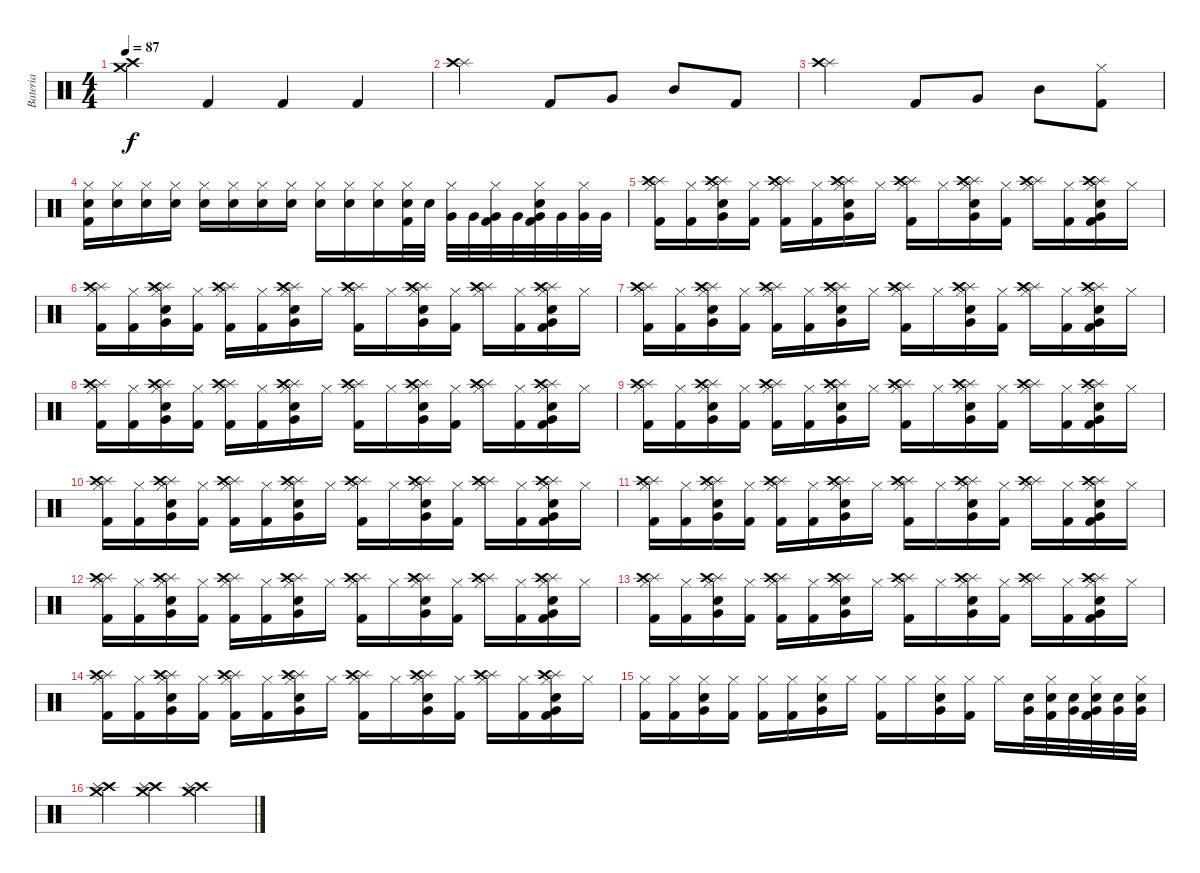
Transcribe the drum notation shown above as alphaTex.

\track ("Bateria" "Bateria") {instrument percussion}
\staff {score}
\articulation defaults
\ts (4 4)
\tempo 87
\clef neutral
\ks c
("Crash medium (hit)" "Crash high (hit)").4{dy f} "Kick (hit) 2".4 "Kick (hit) 2".4 "Kick (hit) 2".4 |
("Splash (hit)" "Crash high (hit)").2 "Kick (hit) 2".8 "Very Low Tom (hit)".8 "Mid Tom (hit)".8 "Kick (hit) 2".8 |
("Splash (hit)" "Crash high (hit)").2 "Kick (hit) 2".8 "Very Low Tom (hit)".8 "Mid Tom (hit)".8 ("Kick (hit) 2" "Hi-Hat (closed)").8 |
("Hi-Hat (closed)" "Snare (hit) 2" "Kick (hit) 2").16 ("Hi-Hat (closed)" "Snare (hit) 2").16 ("Hi-Hat (closed)" "Snare (hit) 2").16 ("Hi-Hat (closed)" "Snare (hit) 2").16 ("Hi-Hat (closed)" "Snare (hit) 2").16 ("Hi-Hat (closed)" "Snare (hit) 2").16 ("Hi-Hat (closed)" "Snare (hit) 2").16 ("Hi-Hat (closed)" "Snare (hit) 2").16 ("Hi-Hat (closed)" "Snare (hit) 2").16 ("Hi-Hat (closed)" "Snare (hit) 2").16 ("Hi-Hat (closed)" "Snare (hit) 2").16 ("Hi-Hat (closed)" "Kick (hit) 2" "Snare (hit) 2").32 "Snare (hit) 2".32 ("Hi-Hat (closed)" "Very Low Tom (hit)").32 "Very Low Tom (hit)".32 ("Hi-Hat (closed)" "Kick (hit) 2" "Very Low Tom (hit)").32 "Very Low Tom (hit)".32 ("Hi-Hat (closed)" "Kick (hit) 2" "Snare (hit) 2" "Very Low Tom (hit)").32 "Very Low Tom (hit)".32 ("Hi-Hat (closed)" "Very Low Tom (hit)").32 "Very Low Tom (hit)".32 |
("Hi-Hat (closed)" "Kick (hit) 2" "Splash (hit)" "Crash high (hit)").16 ("Hi-Hat (closed)" "Kick (hit) 2").16 ("Hi-Hat (closed)" "Snare (hit) 2" "Very Low Tom (hit)" "Splash (hit)" "Crash high (hit)").16 ("Hi-Hat (closed)" "Kick (hit) 2").16 ("Hi-Hat (closed)" "Kick (hit) 2" "Splash (hit)" "Crash high (hit)").16 ("Hi-Hat (closed)" "Kick (hit) 2").16 ("Hi-Hat (closed)" "Snare (hit) 2" "Very Low Tom (hit)" "Splash (hit)" "Crash high (hit)").16 "Hi-Hat (closed)".16 ("Hi-Hat (closed)" "Kick (hit) 2" "Splash (hit)" "Crash high (hit)").16 "Hi-Hat (closed)".16 ("Hi-Hat (closed)" "Snare (hit) 2" "Very Low Tom (hit)" "Splash (hit)" "Crash high (hit)").16 ("Hi-Hat (closed)" "Kick (hit) 2").16 ("Hi-Hat (closed)" "Splash (hit)" "Crash high (hit)").16 ("Hi-Hat (closed)" "Kick (hit) 2").16 ("Hi-Hat (closed)" "Kick (hit) 2" "Snare (hit) 2" "Very Low Tom (hit)" "Splash (hit)" "Crash high (hit)").16 "Hi-Hat (closed)".16 |
("Hi-Hat (closed)" "Kick (hit) 2" "Splash (hit)" "Crash high (hit)").16 ("Hi-Hat (closed)" "Kick (hit) 2").16 ("Hi-Hat (closed)" "Snare (hit) 2" "Very Low Tom (hit)" "Splash (hit)" "Crash high (hit)").16 ("Hi-Hat (closed)" "Kick (hit) 2").16 ("Hi-Hat (closed)" "Kick (hit) 2" "Splash (hit)" "Crash high (hit)").16 ("Hi-Hat (closed)" "Kick (hit) 2").16 ("Hi-Hat (closed)" "Snare (hit) 2" "Very Low Tom (hit)" "Splash (hit)" "Crash high (hit)").16 "Hi-Hat (closed)".16 ("Hi-Hat (closed)" "Kick (hit) 2" "Splash (hit)" "Crash high (hit)").16 "Hi-Hat (closed)".16 ("Hi-Hat (closed)" "Snare (hit) 2" "Very Low Tom (hit)" "Splash (hit)" "Crash high (hit)").16 ("Hi-Hat (closed)" "Kick (hit) 2").16 ("Hi-Hat (closed)" "Splash (hit)" "Crash high (hit)").16 ("Hi-Hat (closed)" "Kick (hit) 2").16 ("Hi-Hat (closed)" "Kick (hit) 2" "Snare (hit) 2" "Very Low Tom (hit)" "Splash (hit)" "Crash high (hit)").16 "Hi-Hat (closed)".16 |
("Hi-Hat (closed)" "Kick (hit) 2" "Splash (hit)" "Crash high (hit)").16 ("Hi-Hat (closed)" "Kick (hit) 2").16 ("Hi-Hat (closed)" "Snare (hit) 2" "Very Low Tom (hit)" "Splash (hit)" "Crash high (hit)").16 ("Hi-Hat (closed)" "Kick (hit) 2").16 ("Hi-Hat (closed)" "Kick (hit) 2" "Splash (hit)" "Crash high (hit)").16 ("Hi-Hat (closed)" "Kick (hit) 2").16 ("Hi-Hat (closed)" "Snare (hit) 2" "Very Low Tom (hit)" "Splash (hit)" "Crash high (hit)").16 "Hi-Hat (closed)".16 ("Hi-Hat (closed)" "Kick (hit) 2" "Splash (hit)" "Crash high (hit)").16 "Hi-Hat (closed)".16 ("Hi-Hat (closed)" "Snare (hit) 2" "Very Low Tom (hit)" "Splash (hit)" "Crash high (hit)").16 ("Hi-Hat (closed)" "Kick (hit) 2").16 ("Hi-Hat (closed)" "Splash (hit)" "Crash high (hit)").16 ("Hi-Hat (closed)" "Kick (hit) 2").16 ("Hi-Hat (closed)" "Kick (hit) 2" "Snare (hit) 2" "Very Low Tom (hit)" "Splash (hit)" "Crash high (hit)").16 "Hi-Hat (closed)".16 |
("Hi-Hat (closed)" "Kick (hit) 2" "Splash (hit)" "Crash high (hit)").16 ("Hi-Hat (closed)" "Kick (hit) 2").16 ("Hi-Hat (closed)" "Snare (hit) 2" "Very Low Tom (hit)" "Splash (hit)" "Crash high (hit)").16 ("Hi-Hat (closed)" "Kick (hit) 2").16 ("Hi-Hat (closed)" "Kick (hit) 2" "Splash (hit)" "Crash high (hit)").16 ("Hi-Hat (closed)" "Kick (hit) 2").16 ("Hi-Hat (closed)" "Snare (hit) 2" "Very Low Tom (hit)" "Splash (hit)" "Crash high (hit)").16 "Hi-Hat (closed)".16 ("Hi-Hat (closed)" "Kick (hit) 2" "Splash (hit)" "Crash high (hit)").16 "Hi-Hat (closed)".16 ("Hi-Hat (closed)" "Snare (hit) 2" "Very Low Tom (hit)" "Splash (hit)" "Crash high (hit)").16 ("Hi-Hat (closed)" "Kick (hit) 2").16 ("Hi-Hat (closed)" "Splash (hit)" "Crash high (hit)").16 ("Hi-Hat (closed)" "Kick (hit) 2").16 ("Hi-Hat (closed)" "Kick (hit) 2" "Snare (hit) 2" "Very Low Tom (hit)" "Splash (hit)" "Crash high (hit)").16 "Hi-Hat (closed)".16 |
("Hi-Hat (closed)" "Kick (hit) 2" "Splash (hit)" "Crash high (hit)").16 ("Hi-Hat (closed)" "Kick (hit) 2").16 ("Hi-Hat (closed)" "Snare (hit) 2" "Very Low Tom (hit)" "Splash (hit)" "Crash high (hit)").16 ("Hi-Hat (closed)" "Kick (hit) 2").16 ("Hi-Hat (closed)" "Kick (hit) 2" "Splash (hit)" "Crash high (hit)").16 ("Hi-Hat (closed)" "Kick (hit) 2").16 ("Hi-Hat (closed)" "Snare (hit) 2" "Very Low Tom (hit)" "Splash (hit)" "Crash high (hit)").16 "Hi-Hat (closed)".16 ("Hi-Hat (closed)" "Kick (hit) 2" "Splash (hit)" "Crash high (hit)").16 "Hi-Hat (closed)".16 ("Hi-Hat (closed)" "Snare (hit) 2" "Very Low Tom (hit)" "Splash (hit)" "Crash high (hit)").16 ("Hi-Hat (closed)" "Kick (hit) 2").16 ("Hi-Hat (closed)" "Splash (hit)" "Crash high (hit)").16 ("Hi-Hat (closed)" "Kick (hit) 2").16 ("Hi-Hat (closed)" "Kick (hit) 2" "Snare (hit) 2" "Very Low Tom (hit)" "Splash (hit)" "Crash high (hit)").16 "Hi-Hat (closed)".16 |
("Hi-Hat (closed)" "Kick (hit) 2" "Splash (hit)" "Crash high (hit)").16 ("Hi-Hat (closed)" "Kick (hit) 2").16 ("Hi-Hat (closed)" "Snare (hit) 2" "Very Low Tom (hit)" "Splash (hit)" "Crash high (hit)").16 ("Hi-Hat (closed)" "Kick (hit) 2").16 ("Hi-Hat (closed)" "Kick (hit) 2" "Splash (hit)" "Crash high (hit)").16 ("Hi-Hat (closed)" "Kick (hit) 2").16 ("Hi-Hat (closed)" "Snare (hit) 2" "Very Low Tom (hit)" "Splash (hit)" "Crash high (hit)").16 "Hi-Hat (closed)".16 ("Hi-Hat (closed)" "Kick (hit) 2" "Splash (hit)" "Crash high (hit)").16 "Hi-Hat (closed)".16 ("Hi-Hat (closed)" "Snare (hit) 2" "Very Low Tom (hit)" "Splash (hit)" "Crash high (hit)").16 ("Hi-Hat (closed)" "Kick (hit) 2").16 ("Hi-Hat (closed)" "Splash (hit)" "Crash high (hit)").16 ("Hi-Hat (closed)" "Kick (hit) 2").16 ("Hi-Hat (closed)" "Kick (hit) 2" "Snare (hit) 2" "Very Low Tom (hit)" "Splash (hit)" "Crash high (hit)").16 "Hi-Hat (closed)".16 |
("Hi-Hat (closed)" "Kick (hit) 2" "Splash (hit)" "Crash high (hit)").16 ("Hi-Hat (closed)" "Kick (hit) 2").16 ("Hi-Hat (closed)" "Snare (hit) 2" "Very Low Tom (hit)" "Splash (hit)" "Crash high (hit)").16 ("Hi-Hat (closed)" "Kick (hit) 2").16 ("Hi-Hat (closed)" "Kick (hit) 2" "Splash (hit)" "Crash high (hit)").16 ("Hi-Hat (closed)" "Kick (hit) 2").16 ("Hi-Hat (closed)" "Snare (hit) 2" "Very Low Tom (hit)" "Splash (hit)" "Crash high (hit)").16 "Hi-Hat (closed)".16 ("Hi-Hat (closed)" "Kick (hit) 2" "Splash (hit)" "Crash high (hit)").16 "Hi-Hat (closed)".16 ("Hi-Hat (closed)" "Snare (hit) 2" "Very Low Tom (hit)" "Splash (hit)" "Crash high (hit)").16 ("Hi-Hat (closed)" "Kick (hit) 2").16 ("Hi-Hat (closed)" "Splash (hit)" "Crash high (hit)").16 ("Hi-Hat (closed)" "Kick (hit) 2").16 ("Hi-Hat (closed)" "Kick (hit) 2" "Snare (hit) 2" "Very Low Tom (hit)" "Splash (hit)" "Crash high (hit)").16 "Hi-Hat (closed)".16 |
("Hi-Hat (closed)" "Kick (hit) 2" "Splash (hit)" "Crash high (hit)").16 ("Hi-Hat (closed)" "Kick (hit) 2").16 ("Hi-Hat (closed)" "Snare (hit) 2" "Very Low Tom (hit)" "Splash (hit)" "Crash high (hit)").16 ("Hi-Hat (closed)" "Kick (hit) 2").16 ("Hi-Hat (closed)" "Kick (hit) 2" "Splash (hit)" "Crash high (hit)").16 ("Hi-Hat (closed)" "Kick (hit) 2").16 ("Hi-Hat (closed)" "Snare (hit) 2" "Very Low Tom (hit)" "Splash (hit)" "Crash high (hit)").16 "Hi-Hat (closed)".16 ("Hi-Hat (closed)" "Kick (hit) 2" "Splash (hit)" "Crash high (hit)").16 "Hi-Hat (closed)".16 ("Hi-Hat (closed)" "Snare (hit) 2" "Very Low Tom (hit)" "Splash (hit)" "Crash high (hit)").16 ("Hi-Hat (closed)" "Kick (hit) 2").16 ("Hi-Hat (closed)" "Splash (hit)" "Crash high (hit)").16 ("Hi-Hat (closed)" "Kick (hit) 2").16 ("Hi-Hat (closed)" "Kick (hit) 2" "Snare (hit) 2" "Very Low Tom (hit)" "Splash (hit)" "Crash high (hit)").16 "Hi-Hat (closed)".16 |
("Hi-Hat (closed)" "Kick (hit) 2" "Splash (hit)" "Crash high (hit)").16 ("Hi-Hat (closed)" "Kick (hit) 2").16 ("Hi-Hat (closed)" "Snare (hit) 2" "Very Low Tom (hit)" "Splash (hit)" "Crash high (hit)").16 ("Hi-Hat (closed)" "Kick (hit) 2").16 ("Hi-Hat (closed)" "Kick (hit) 2" "Splash (hit)" "Crash high (hit)").16 ("Hi-Hat (closed)" "Kick (hit) 2").16 ("Hi-Hat (closed)" "Snare (hit) 2" "Very Low Tom (hit)" "Splash (hit)" "Crash high (hit)").16 "Hi-Hat (closed)".16 ("Hi-Hat (closed)" "Kick (hit) 2" "Splash (hit)" "Crash high (hit)").16 "Hi-Hat (closed)".16 ("Hi-Hat (closed)" "Snare (hit) 2" "Very Low Tom (hit)" "Splash (hit)" "Crash high (hit)").16 ("Hi-Hat (closed)" "Kick (hit) 2").16 ("Hi-Hat (closed)" "Splash (hit)" "Crash high (hit)").16 ("Hi-Hat (closed)" "Kick (hit) 2").16 ("Hi-Hat (closed)" "Kick (hit) 2" "Snare (hit) 2" "Very Low Tom (hit)" "Splash (hit)" "Crash high (hit)").16 "Hi-Hat (closed)".16 |
("Hi-Hat (closed)" "Kick (hit) 2" "Splash (hit)" "Crash high (hit)").16 ("Hi-Hat (closed)" "Kick (hit) 2").16 ("Hi-Hat (closed)" "Snare (hit) 2" "Very Low Tom (hit)" "Splash (hit)" "Crash high (hit)").16 ("Hi-Hat (closed)" "Kick (hit) 2").16 ("Hi-Hat (closed)" "Kick (hit) 2" "Splash (hit)" "Crash high (hit)").16 ("Hi-Hat (closed)" "Kick (hit) 2").16 ("Hi-Hat (closed)" "Snare (hit) 2" "Very Low Tom (hit)" "Splash (hit)" "Crash high (hit)").16 "Hi-Hat (closed)".16 ("Hi-Hat (closed)" "Kick (hit) 2" "Splash (hit)" "Crash high (hit)").16 "Hi-Hat (closed)".16 ("Hi-Hat (closed)" "Snare (hit) 2" "Very Low Tom (hit)" "Splash (hit)" "Crash high (hit)").16 ("Hi-Hat (closed)" "Kick (hit) 2").16 ("Hi-Hat (closed)" "Splash (hit)" "Crash high (hit)").16 ("Hi-Hat (closed)" "Kick (hit) 2").16 ("Hi-Hat (closed)" "Kick (hit) 2" "Snare (hit) 2" "Very Low Tom (hit)" "Splash (hit)" "Crash high (hit)").16 "Hi-Hat (closed)".16 |
("Hi-Hat (closed)" "Kick (hit) 2").16 ("Hi-Hat (closed)" "Kick (hit) 2").16 ("Hi-Hat (closed)" "Snare (hit) 2" "Very Low Tom (hit)").16 ("Hi-Hat (closed)" "Kick (hit) 2").16 ("Hi-Hat (closed)" "Kick (hit) 2").16 ("Hi-Hat (closed)" "Kick (hit) 2").16 ("Hi-Hat (closed)" "Snare (hit) 2" "Very Low Tom (hit)").16 "Hi-Hat (closed)".16 ("Hi-Hat (closed)" "Kick (hit) 2").16 "Hi-Hat (closed)".16 ("Hi-Hat (closed)" "Snare (hit) 2" "Very Low Tom (hit)").16 ("Hi-Hat (closed)" "Kick (hit) 2").16 "Hi-Hat (closed)".16 ("Snare (hit) 2" "Very Low Tom (hit)").32 ("Hi-Hat (closed)" "Kick (hit) 2" "Snare (hit) 2").32 ("Snare (hit) 2" "Very Low Tom (hit)").32 ("Hi-Hat (closed)" "Kick (hit) 2" "Snare (hit) 2" "Very Low Tom (hit)").32 ("Snare (hit) 2" "Very Low Tom (hit)").32 ("Hi-Hat (closed)" "Snare (hit) 2" "Very Low Tom (hit)").32 |
("Crash medium (hit)" "Crash high (hit)" "Splash (hit)").4 ("Crash medium (hit)" "Crash high (hit)" "Splash (hit)").4 ("Crash medium (hit)" "Crash high (hit)" "Splash (hit)").2
